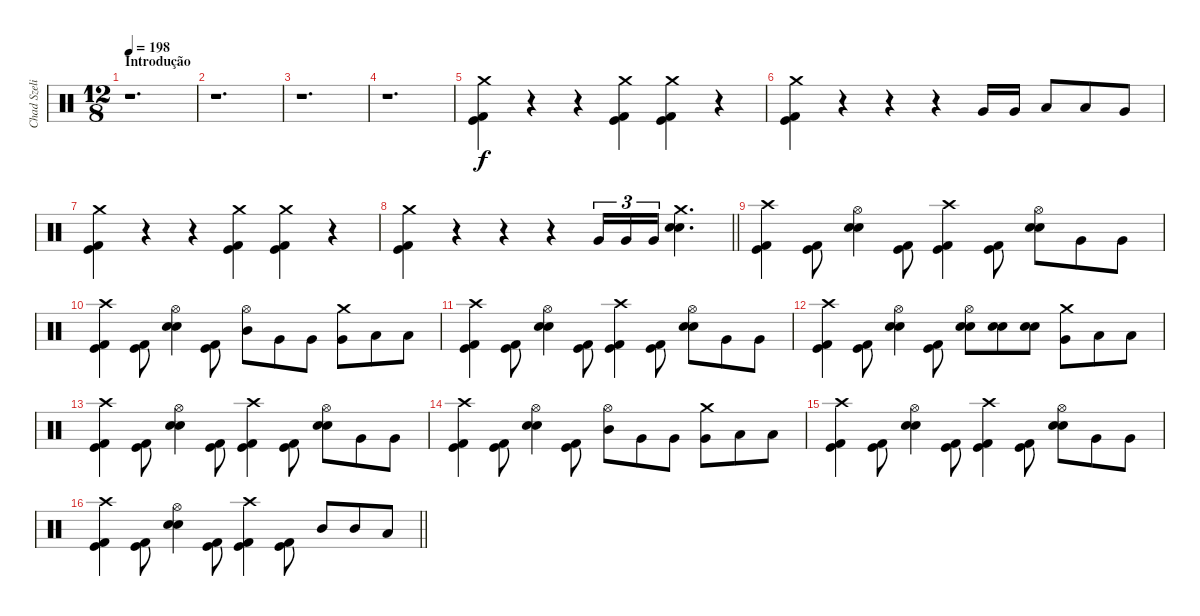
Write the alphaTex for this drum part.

\track ("Chad Szeliga" "Chad Szeli") {instrument percussion}
\staff {score}
\articulation defaults
\ts (12 8)
\section ("" "Introdução")
\tempo 198
\clef neutral
\ks c
r.1{d dy f} |
r.1{d} |
r.1{d} |
r.1{d} |
("Crash medium (hit)" "Kick (hit) 2" "Kick (hit)").4 r.4 r.4 ("Crash medium (hit)" "Kick (hit) 2" "Kick (hit)").4 ("Crash medium (hit)" "Kick (hit) 2" "Kick (hit)").4 r.4 |
("Crash medium (hit)" "Kick (hit) 2" "Kick (hit)").4 r.4 r.4 r.4 "Very Low Tom (hit)".16 "Very Low Tom (hit)".16 "Low Tom (hit)".8 "Low Tom (hit)".8 "Very Low Tom (hit)".8 |
("Crash medium (hit)" "Kick (hit) 2" "Kick (hit)").4 r.4 r.4 ("Crash medium (hit)" "Kick (hit) 2" "Kick (hit)").4 ("Crash medium (hit)" "Kick (hit) 2" "Kick (hit)").4 r.4 |
\barLineRight lightlight
("Crash medium (hit)" "Kick (hit) 2" "Kick (hit)").4 r.4 r.4 r.4 "Very Low Tom (hit)".16{tu (3 2)} "Very Low Tom (hit)".16{tu (3 2)} "Very Low Tom (hit)".16{tu (3 2)} ("Crash medium (hit)" "Snare (hit) 2" "Snare (hit) 2").4{d} |
("Crash high (hit)" "Kick (hit) 2" "Kick (hit)").4 ("Kick (hit) 2" "Kick (hit)").8{beam Down} ("Snare (hit) 2" "Snare (hit) 2" "Hi-Hat (open)").4 ("Kick (hit) 2" "Kick (hit)").8{beam Down} ("Crash high (hit)" "Kick (hit) 2" "Kick (hit)").4 ("Kick (hit) 2" "Kick (hit)").8{beam Down} ("Snare (hit) 2" "Snare (hit) 2" "Hi-Hat (open)").8 "Very Low Tom (hit)".8 "Very Low Tom (hit)".8 |
("Crash high (hit)" "Kick (hit) 2" "Kick (hit)").4 ("Kick (hit) 2" "Kick (hit)").8{beam Down} ("Snare (hit) 2" "Snare (hit) 2" "Hi-Hat (open)").4 ("Kick (hit) 2" "Kick (hit)").8{beam Down} ("Mid Tom (hit)" "Hi-Hat (open)").8 "Very Low Tom (hit)".8 "Very Low Tom (hit)".8 ("Crash medium (hit)" "Very Low Tom (hit)").8 "Low Tom (hit)".8 "Low Tom (hit)".8 |
("Crash high (hit)" "Kick (hit) 2" "Kick (hit)").4 ("Kick (hit) 2" "Kick (hit)").8{beam Down} ("Snare (hit) 2" "Snare (hit) 2" "Hi-Hat (open)").4 ("Kick (hit) 2" "Kick (hit)").8{beam Down} ("Crash high (hit)" "Kick (hit) 2" "Kick (hit)").4 ("Kick (hit) 2" "Kick (hit)").8{beam Down} ("Snare (hit) 2" "Snare (hit) 2" "Hi-Hat (open)").8 "Very Low Tom (hit)".8 "Very Low Tom (hit)".8 |
("Crash high (hit)" "Kick (hit) 2" "Kick (hit)").4 ("Kick (hit) 2" "Kick (hit)").8{beam Down} ("Snare (hit) 2" "Snare (hit) 2" "Hi-Hat (open)").4 ("Kick (hit) 2" "Kick (hit)").8{beam Down} ("Snare (hit) 2" "Snare (hit) 2" "Hi-Hat (open)").8 ("Snare (hit) 2" "Snare (hit) 2").8 ("Snare (hit) 2" "Snare (hit) 2").8 ("Crash medium (hit)" "Very Low Tom (hit)").8 "Low Tom (hit)".8 "Low Tom (hit)".8 |
("Crash high (hit)" "Kick (hit) 2" "Kick (hit)").4 ("Kick (hit) 2" "Kick (hit)").8{beam Down} ("Snare (hit) 2" "Snare (hit) 2" "Hi-Hat (open)").4 ("Kick (hit) 2" "Kick (hit)").8{beam Down} ("Crash high (hit)" "Kick (hit) 2" "Kick (hit)").4 ("Kick (hit) 2" "Kick (hit)").8{beam Down} ("Snare (hit) 2" "Snare (hit) 2" "Hi-Hat (open)").8 "Very Low Tom (hit)".8 "Very Low Tom (hit)".8 |
("Crash high (hit)" "Kick (hit) 2" "Kick (hit)").4 ("Kick (hit) 2" "Kick (hit)").8{beam Down} ("Snare (hit) 2" "Snare (hit) 2" "Hi-Hat (open)").4 ("Kick (hit) 2" "Kick (hit)").8{beam Down} ("Mid Tom (hit)" "Hi-Hat (open)").8 "Very Low Tom (hit)".8 "Very Low Tom (hit)".8 ("Crash medium (hit)" "Very Low Tom (hit)").8 "Low Tom (hit)".8 "Low Tom (hit)".8 |
("Crash high (hit)" "Kick (hit) 2" "Kick (hit)").4 ("Kick (hit) 2" "Kick (hit)").8{beam Down} ("Snare (hit) 2" "Snare (hit) 2" "Hi-Hat (open)").4 ("Kick (hit) 2" "Kick (hit)").8{beam Down} ("Crash high (hit)" "Kick (hit) 2" "Kick (hit)").4 ("Kick (hit) 2" "Kick (hit)").8{beam Down} ("Snare (hit) 2" "Snare (hit) 2" "Hi-Hat (open)").8 "Very Low Tom (hit)".8 "Very Low Tom (hit)".8 |
\barLineRight lightlight
("Crash high (hit)" "Kick (hit) 2" "Kick (hit)").4 ("Kick (hit) 2" "Kick (hit)").8{beam Down} ("Snare (hit) 2" "Snare (hit) 2" "Hi-Hat (open)").4 ("Kick (hit) 2" "Kick (hit)").8{beam Down} ("Crash high (hit)" "Kick (hit) 2" "Kick (hit)").4 ("Kick (hit) 2" "Kick (hit)").8{beam Down} "Mid Tom (hit)".8 "Mid Tom (hit)".8 "Low Tom (hit)".8
